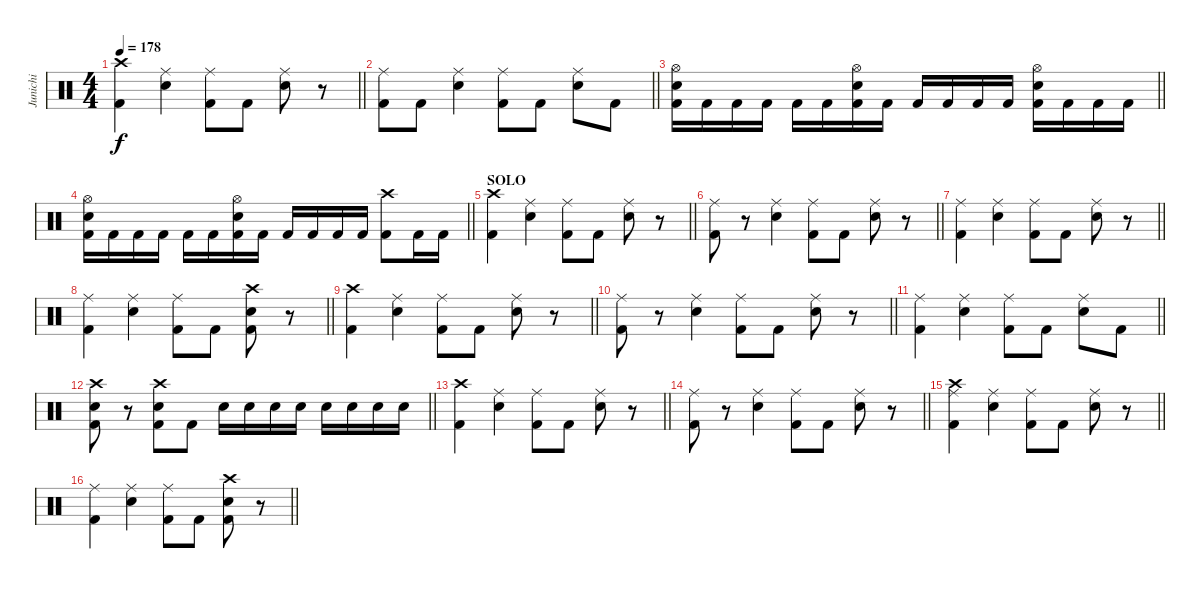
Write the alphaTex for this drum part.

\track ("Junichi" "Junichi") {instrument percussion}
\staff {score}
\articulation defaults
\ts (4 4)
\tempo 178
\clef neutral
\barLineRight lightlight
\ks c
("Crash high (hit)" "Kick (hit) 2").4{dy f} ("Ride (middle)" "Snare (hit) 2").4 ("Ride (middle)" "Kick (hit) 2").8 "Kick (hit) 2".8 ("Ride (middle)" "Snare (hit) 2").8 r.8 |
\barLineRight lightlight
("Ride (middle)" "Kick (hit) 2").8 "Kick (hit) 2".8 ("Ride (middle)" "Snare (hit) 2").4 ("Ride (middle)" "Kick (hit) 2").8 "Kick (hit) 2".8 ("Ride (middle)" "Snare (hit) 2").8 "Kick (hit) 2".8 |
\barLineRight lightlight
("Hi-Hat (open)" "Snare (hit) 2" "Kick (hit) 2").16 "Kick (hit) 2".16 "Kick (hit) 2".16 "Kick (hit) 2".16 "Kick (hit) 2".16 "Kick (hit) 2".16 ("Hi-Hat (open)" "Snare (hit) 2" "Kick (hit) 2").16 "Kick (hit) 2".16 "Kick (hit) 2".16 "Kick (hit) 2".16 "Kick (hit) 2".16 "Kick (hit) 2".16 ("Hi-Hat (open)" "Snare (hit) 2" "Kick (hit) 2").16 "Kick (hit) 2".16 "Kick (hit) 2".16 "Kick (hit) 2".16 |
\barLineRight lightlight
("Hi-Hat (open)" "Snare (hit) 2" "Kick (hit) 2").16 "Kick (hit) 2".16 "Kick (hit) 2".16 "Kick (hit) 2".16 "Kick (hit) 2".16 "Kick (hit) 2".16 ("Hi-Hat (open)" "Snare (hit) 2" "Kick (hit) 2").16 "Kick (hit) 2".16 "Kick (hit) 2".16 "Kick (hit) 2".16 "Kick (hit) 2".16 "Kick (hit) 2".16 ("Crash high (hit)" "Kick (hit) 2").8 "Kick (hit) 2".16 "Kick (hit) 2".16 |
\section ("" "SOLO")
\barLineRight lightlight
("Crash high (hit)" "Kick (hit) 2").4 ("Ride (middle)" "Snare (hit) 2").4 ("Ride (middle)" "Kick (hit) 2").8 "Kick (hit) 2".8 ("Ride (middle)" "Snare (hit) 2").8 r.8 |
\barLineRight lightlight
("Ride (middle)" "Kick (hit) 2").8 r.8 ("Ride (middle)" "Snare (hit) 2").4 ("Ride (middle)" "Kick (hit) 2").8 "Kick (hit) 2".8 ("Ride (middle)" "Snare (hit) 2").8 r.8 |
\barLineRight lightlight
("Ride (middle)" "Kick (hit) 2").4 ("Ride (middle)" "Snare (hit) 2").4 ("Ride (middle)" "Kick (hit) 2").8 "Kick (hit) 2".8 ("Ride (middle)" "Snare (hit) 2").8 r.8 |
\barLineRight lightlight
("Ride (middle)" "Kick (hit) 2").4 ("Ride (middle)" "Snare (hit) 2").4 ("Ride (middle)" "Kick (hit) 2").8 "Kick (hit) 2".8 ("Crash high (hit)" "Snare (hit) 2" "Kick (hit) 2").8 r.8 |
\barLineRight lightlight
("Crash high (hit)" "Kick (hit) 2").4 ("Ride (middle)" "Snare (hit) 2").4 ("Ride (middle)" "Kick (hit) 2").8 "Kick (hit) 2".8 ("Ride (middle)" "Snare (hit) 2").8 r.8 |
\barLineRight lightlight
("Ride (middle)" "Kick (hit) 2").8 r.8 ("Ride (middle)" "Snare (hit) 2").4 ("Ride (middle)" "Kick (hit) 2").8 "Kick (hit) 2".8 ("Ride (middle)" "Snare (hit) 2").8 r.8 |
\barLineRight lightlight
("Ride (middle)" "Kick (hit) 2").4 ("Ride (middle)" "Snare (hit) 2").4 ("Ride (middle)" "Kick (hit) 2").8 "Kick (hit) 2".8 ("Ride (middle)" "Snare (hit) 2").8 "Kick (hit) 2".8 |
\barLineRight lightlight
("Crash high (hit)" "Snare (hit) 2" "Kick (hit) 2").8 r.8 ("Crash high (hit)" "Snare (hit) 2" "Kick (hit) 2").8 "Kick (hit) 2".8 "Snare (hit) 2".16 "Snare (hit) 2".16 "Snare (hit) 2".16 "Snare (hit) 2".16 "Snare (hit) 2".16 "Snare (hit) 2".16 "Snare (hit) 2".16 "Snare (hit) 2".16 |
\barLineRight lightlight
("Crash high (hit)" "Kick (hit) 2").4 ("Ride (middle)" "Snare (hit) 2").4 ("Ride (middle)" "Kick (hit) 2").8 "Kick (hit) 2".8 ("Ride (middle)" "Snare (hit) 2").8 r.8 |
\barLineRight lightlight
("Ride (middle)" "Kick (hit) 2").8 r.8 ("Ride (middle)" "Snare (hit) 2").4 ("Ride (middle)" "Kick (hit) 2").8 "Kick (hit) 2".8 ("Ride (middle)" "Snare (hit) 2").8 r.8 |
\barLineRight lightlight
("Crash high (hit)" "Ride (middle)" "Kick (hit) 2").4 ("Ride (middle)" "Snare (hit) 2").4 ("Ride (middle)" "Kick (hit) 2").8 "Kick (hit) 2".8 ("Ride (middle)" "Snare (hit) 2").8 r.8 |
\barLineRight lightlight
("Ride (middle)" "Kick (hit) 2").4 ("Ride (middle)" "Snare (hit) 2").4 ("Ride (middle)" "Kick (hit) 2").8 "Kick (hit) 2".8 ("Crash high (hit)" "Snare (hit) 2" "Kick (hit) 2").8 r.8
